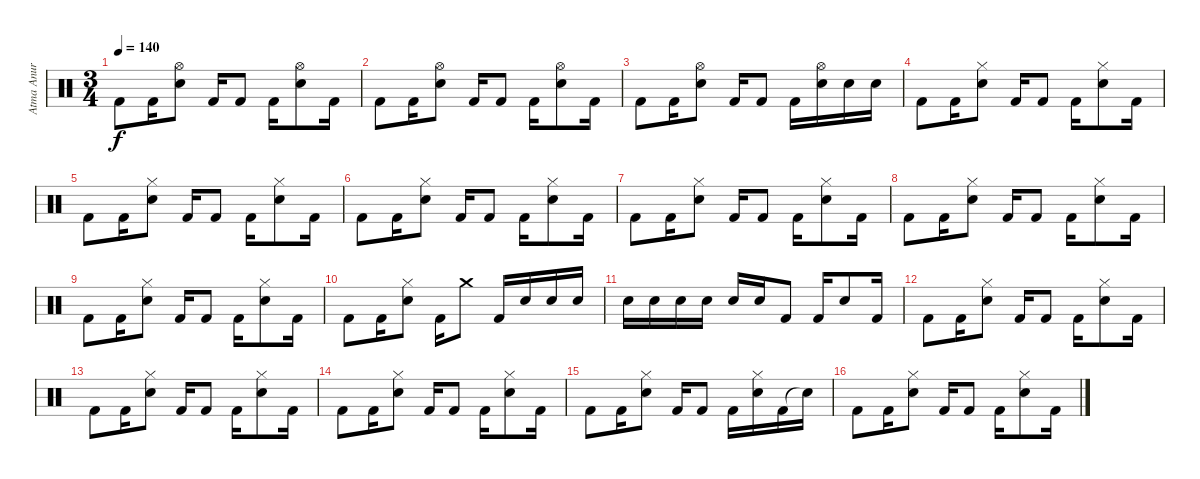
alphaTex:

\track ("Atma Anur" "Atma Anur") {instrument percussion}
\staff {score}
\articulation defaults
\ts (3 4)
\tempo 140
\clef neutral
\ks c "Kick (hit) 2".8{dy f} "Kick (hit) 2".16
("Hi-Hat (open)" "Snare (hit) 2").8 "Kick (hit) 2".16 "Kick (hit) 2".8 "Kick (hit) 2".16 ("Hi-Hat (open)" "Snare (hit) 2").8 "Kick (hit) 2".16 |
"Kick (hit) 2".8 "Kick (hit) 2".16 ("Hi-Hat (open)" "Snare (hit) 2").8 "Kick (hit) 2".16 "Kick (hit) 2".8 "Kick (hit) 2".16 ("Hi-Hat (open)" "Snare (hit) 2").8 "Kick (hit) 2".16 |
"Kick (hit) 2".8 "Kick (hit) 2".16 ("Hi-Hat (open)" "Snare (hit) 2").8 "Kick (hit) 2".16 "Kick (hit) 2".8 "Kick (hit) 2".16 ("Hi-Hat (open)" "Snare (hit) 2").16 "Snare (hit) 2".16 "Snare (hit) 2".16 |
"Kick (hit) 2".8 "Kick (hit) 2".16 ("Hi-Hat (closed)" "Snare (hit) 2").8 "Kick (hit) 2".16 "Kick (hit) 2".8 "Kick (hit) 2".16 ("Hi-Hat (closed)" "Snare (hit) 2").8 "Kick (hit) 2".16 |
"Kick (hit) 2".8 "Kick (hit) 2".16 ("Hi-Hat (closed)" "Snare (hit) 2").8 "Kick (hit) 2".16 "Kick (hit) 2".8 "Kick (hit) 2".16 ("Hi-Hat (closed)" "Snare (hit) 2").8 "Kick (hit) 2".16 |
"Kick (hit) 2".8 "Kick (hit) 2".16 ("Hi-Hat (closed)" "Snare (hit) 2").8 "Kick (hit) 2".16 "Kick (hit) 2".8 "Kick (hit) 2".16 ("Hi-Hat (closed)" "Snare (hit) 2").8 "Kick (hit) 2".16 |
"Kick (hit) 2".8 "Kick (hit) 2".16 ("Hi-Hat (closed)" "Snare (hit) 2").8 "Kick (hit) 2".16 "Kick (hit) 2".8 "Kick (hit) 2".16 ("Hi-Hat (closed)" "Snare (hit) 2").8 "Kick (hit) 2".16 |
"Kick (hit) 2".8 "Kick (hit) 2".16 ("Hi-Hat (closed)" "Snare (hit) 2").8 "Kick (hit) 2".16 "Kick (hit) 2".8 "Kick (hit) 2".16 ("Hi-Hat (closed)" "Snare (hit) 2").8 "Kick (hit) 2".16 |
"Kick (hit) 2".8 "Kick (hit) 2".16 ("Hi-Hat (closed)" "Snare (hit) 2").8 "Kick (hit) 2".16 "Kick (hit) 2".8 "Kick (hit) 2".16 ("Hi-Hat (closed)" "Snare (hit) 2").8 "Kick (hit) 2".16 |
"Kick (hit) 2".8 "Kick (hit) 2".16 ("Hi-Hat (closed)" "Snare (hit) 2").8 "Kick (hit) 2".16 "Crash medium (hit)".8 "Kick (hit) 2".16 "Snare (hit) 2".16 "Snare (hit) 2".16 "Snare (hit) 2".16 |
"Snare (hit) 2".16 "Snare (hit) 2".16 "Snare (hit) 2".16 "Snare (hit) 2".16 "Snare (hit) 2".16 "Snare (hit) 2".16 "Kick (hit) 2".8 "Kick (hit) 2".16 "Snare (hit) 2".8 "Kick (hit) 2".16 |
"Kick (hit) 2".8 "Kick (hit) 2".16 ("Hi-Hat (closed)" "Snare (hit) 2").8 "Kick (hit) 2".16 "Kick (hit) 2".8 "Kick (hit) 2".16 ("Hi-Hat (closed)" "Snare (hit) 2").8 "Kick (hit) 2".16 |
"Kick (hit) 2".8 "Kick (hit) 2".16 ("Hi-Hat (closed)" "Snare (hit) 2").8 "Kick (hit) 2".16 "Kick (hit) 2".8 "Kick (hit) 2".16 ("Hi-Hat (closed)" "Snare (hit) 2").8 "Kick (hit) 2".16 |
"Kick (hit) 2".8 "Kick (hit) 2".16 ("Hi-Hat (closed)" "Snare (hit) 2").8 "Kick (hit) 2".16 "Kick (hit) 2".8 "Kick (hit) 2".16 ("Hi-Hat (closed)" "Snare (hit) 2").8 "Kick (hit) 2".16 |
"Kick (hit) 2".8 "Kick (hit) 2".16 ("Hi-Hat (closed)" "Snare (hit) 2").8 "Kick (hit) 2".16 "Kick (hit) 2".8 "Kick (hit) 2".16 ("Hi-Hat (closed)" "Snare (hit) 2").16 "Kick (hit) 2".16 "Snare (hit)"{t}.16 |
"Kick (hit) 2".8 "Kick (hit) 2".16 ("Hi-Hat (closed)" "Snare (hit) 2").8 "Kick (hit) 2".16 "Kick (hit) 2".8 "Kick (hit) 2".16 ("Hi-Hat (closed)" "Snare (hit) 2").8 "Kick (hit) 2".16
